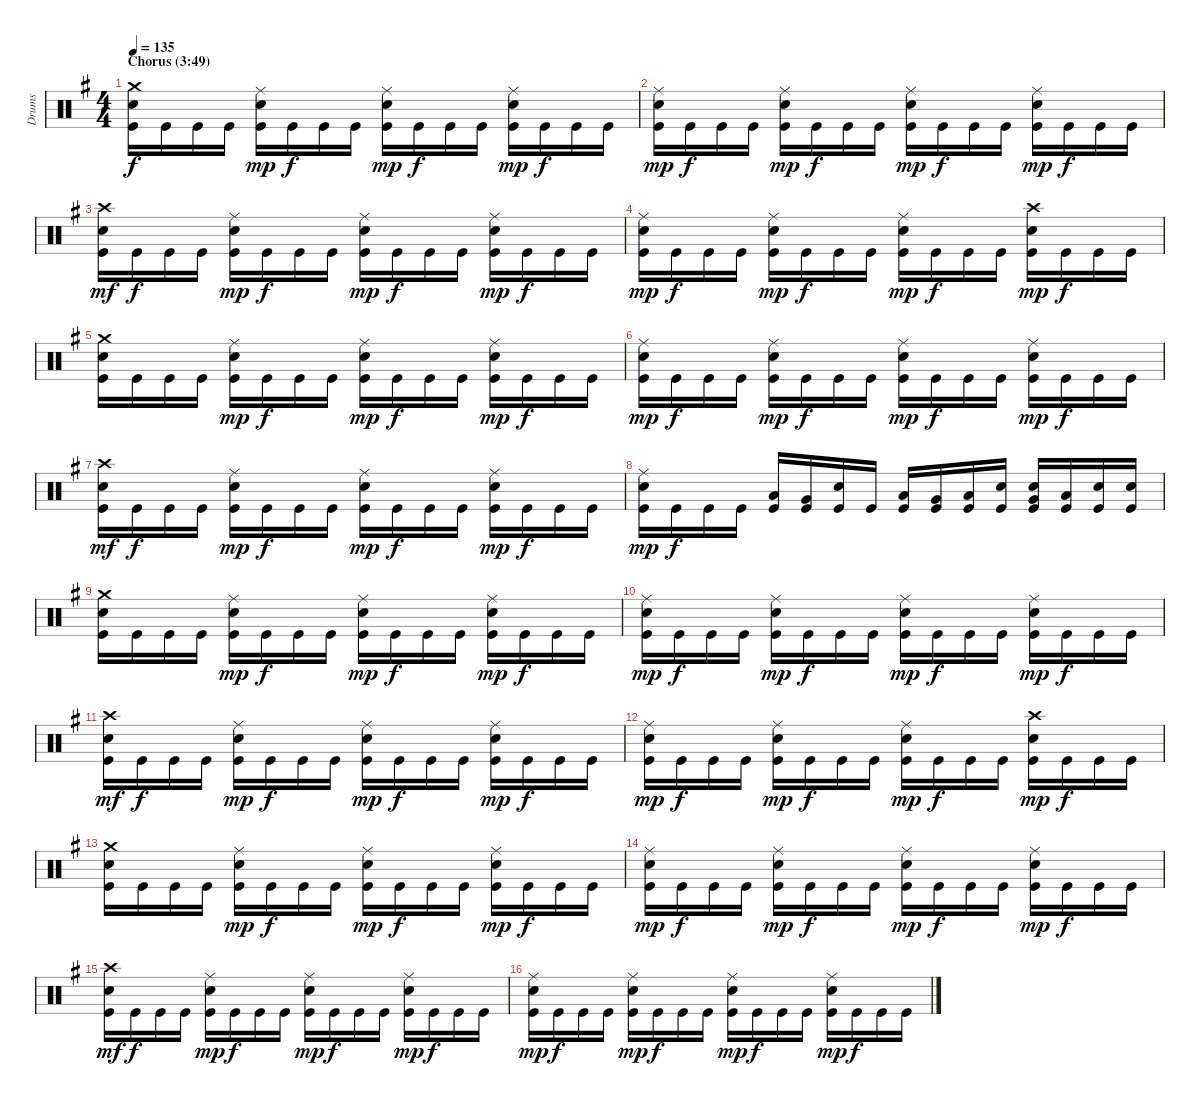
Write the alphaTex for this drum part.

\track ("Drums" "Drums") {instrument percussion}
\staff {score}
\articulation defaults
\ts (4 4)
\section ("" "Chorus (3:49)")
\tempo 135
\clef neutral
\ks eminor
("Crash medium (hit)" "Snare (hit) 2" "Kick (hit)").16{dy f} "Kick (hit)".16 "Kick (hit)".16 "Kick (hit)".16 ("Ride (middle)" "Snare (hit) 2" "Kick (hit)").16{dy mp} "Kick (hit)".16{dy f} "Kick (hit)".16 "Kick (hit)".16 ("Ride (middle)" "Snare (hit) 2" "Kick (hit)").16{dy mp} "Kick (hit)".16{dy f} "Kick (hit)".16 "Kick (hit)".16 ("Ride (middle)" "Snare (hit) 2" "Kick (hit)").16{dy mp} "Kick (hit)".16{dy f} "Kick (hit)".16 "Kick (hit)".16 |
("Ride (middle)" "Snare (hit) 2" "Kick (hit)").16{dy mp} "Kick (hit)".16{dy f} "Kick (hit)".16 "Kick (hit)".16 ("Ride (middle)" "Snare (hit) 2" "Kick (hit)").16{dy mp} "Kick (hit)".16{dy f} "Kick (hit)".16 "Kick (hit)".16 ("Ride (middle)" "Snare (hit) 2" "Kick (hit)").16{dy mp} "Kick (hit)".16{dy f} "Kick (hit)".16 "Kick (hit)".16 ("Ride (middle)" "Snare (hit) 2" "Kick (hit)").16{dy mp} "Kick (hit)".16{dy f} "Kick (hit)".16 "Kick (hit)".16 |
("Crash high (hit)" "Snare (hit) 2" "Kick (hit)").16{dy mf} "Kick (hit)".16{dy f} "Kick (hit)".16 "Kick (hit)".16 ("Ride (middle)" "Snare (hit) 2" "Kick (hit)").16{dy mp} "Kick (hit)".16{dy f} "Kick (hit)".16 "Kick (hit)".16 ("Ride (middle)" "Snare (hit) 2" "Kick (hit)").16{dy mp} "Kick (hit)".16{dy f} "Kick (hit)".16 "Kick (hit)".16 ("Ride (middle)" "Snare (hit) 2" "Kick (hit)").16{dy mp} "Kick (hit)".16{dy f} "Kick (hit)".16 "Kick (hit)".16 |
("Ride (middle)" "Snare (hit) 2" "Kick (hit)").16{dy mp} "Kick (hit)".16{dy f} "Kick (hit)".16 "Kick (hit)".16 ("Ride (middle)" "Snare (hit) 2" "Kick (hit)").16{dy mp} "Kick (hit)".16{dy f} "Kick (hit)".16 "Kick (hit)".16 ("Ride (middle)" "Snare (hit) 2" "Kick (hit)").16{dy mp} "Kick (hit)".16{dy f} "Kick (hit)".16 "Kick (hit)".16 ("Crash high (hit)" "Snare (hit) 2" "Kick (hit)").16{dy mp} "Kick (hit)".16{dy f} "Kick (hit)".16 "Kick (hit)".16 |
("Crash medium (hit)" "Snare (hit) 2" "Kick (hit)").16 "Kick (hit)".16 "Kick (hit)".16 "Kick (hit)".16 ("Ride (middle)" "Snare (hit) 2" "Kick (hit)").16{dy mp} "Kick (hit)".16{dy f} "Kick (hit)".16 "Kick (hit)".16 ("Ride (middle)" "Snare (hit) 2" "Kick (hit)").16{dy mp} "Kick (hit)".16{dy f} "Kick (hit)".16 "Kick (hit)".16 ("Ride (middle)" "Snare (hit) 2" "Kick (hit)").16{dy mp} "Kick (hit)".16{dy f} "Kick (hit)".16 "Kick (hit)".16 |
("Ride (middle)" "Snare (hit) 2" "Kick (hit)").16{dy mp} "Kick (hit)".16{dy f} "Kick (hit)".16 "Kick (hit)".16 ("Ride (middle)" "Snare (hit) 2" "Kick (hit)").16{dy mp} "Kick (hit)".16{dy f} "Kick (hit)".16 "Kick (hit)".16 ("Ride (middle)" "Snare (hit) 2" "Kick (hit)").16{dy mp} "Kick (hit)".16{dy f} "Kick (hit)".16 "Kick (hit)".16 ("Ride (middle)" "Snare (hit) 2" "Kick (hit)").16{dy mp} "Kick (hit)".16{dy f} "Kick (hit)".16 "Kick (hit)".16 |
("Crash high (hit)" "Snare (hit) 2" "Kick (hit)").16{dy mf} "Kick (hit)".16{dy f} "Kick (hit)".16 "Kick (hit)".16 ("Ride (middle)" "Snare (hit) 2" "Kick (hit)").16{dy mp} "Kick (hit)".16{dy f} "Kick (hit)".16 "Kick (hit)".16 ("Ride (middle)" "Snare (hit) 2" "Kick (hit)").16{dy mp} "Kick (hit)".16{dy f} "Kick (hit)".16 "Kick (hit)".16 ("Ride (middle)" "Snare (hit) 2" "Kick (hit)").16{dy mp} "Kick (hit)".16{dy f} "Kick (hit)".16 "Kick (hit)".16 |
("Ride (middle)" "Snare (hit) 2" "Kick (hit)").16{dy mp} "Kick (hit)".16{dy f} "Kick (hit)".16 "Kick (hit)".16 ("Low Tom (hit)" "Kick (hit)").16 ("Very Low Tom (hit)" "Kick (hit)").16 ("Snare (hit) 2" "Kick (hit)").16 "Kick (hit)".16 ("Low Tom (hit)" "Kick (hit)").16 ("Very Low Tom (hit)" "Kick (hit)").16 ("Low Floor Tom (hit)" "Kick (hit)").16 ("Snare (hit) 2" "Kick (hit)").16 ("Very Low Tom (hit)" "Snare (hit) 2" "Kick (hit)").16 ("Low Floor Tom (hit)" "Kick (hit)").16 ("Snare (hit) 2" "Kick (hit)").16 ("Snare (hit) 2" "Kick (hit)").16 |
("Crash medium (hit)" "Snare (hit) 2" "Kick (hit)").16 "Kick (hit)".16 "Kick (hit)".16 "Kick (hit)".16 ("Ride (middle)" "Snare (hit) 2" "Kick (hit)").16{dy mp} "Kick (hit)".16{dy f} "Kick (hit)".16 "Kick (hit)".16 ("Ride (middle)" "Snare (hit) 2" "Kick (hit)").16{dy mp} "Kick (hit)".16{dy f} "Kick (hit)".16 "Kick (hit)".16 ("Ride (middle)" "Snare (hit) 2" "Kick (hit)").16{dy mp} "Kick (hit)".16{dy f} "Kick (hit)".16 "Kick (hit)".16 |
("Ride (middle)" "Snare (hit) 2" "Kick (hit)").16{dy mp} "Kick (hit)".16{dy f} "Kick (hit)".16 "Kick (hit)".16 ("Ride (middle)" "Snare (hit) 2" "Kick (hit)").16{dy mp} "Kick (hit)".16{dy f} "Kick (hit)".16 "Kick (hit)".16 ("Ride (middle)" "Snare (hit) 2" "Kick (hit)").16{dy mp} "Kick (hit)".16{dy f} "Kick (hit)".16 "Kick (hit)".16 ("Ride (middle)" "Snare (hit) 2" "Kick (hit)").16{dy mp} "Kick (hit)".16{dy f} "Kick (hit)".16 "Kick (hit)".16 |
("Crash high (hit)" "Snare (hit) 2" "Kick (hit)").16{dy mf} "Kick (hit)".16{dy f} "Kick (hit)".16 "Kick (hit)".16 ("Ride (middle)" "Snare (hit) 2" "Kick (hit)").16{dy mp} "Kick (hit)".16{dy f} "Kick (hit)".16 "Kick (hit)".16 ("Ride (middle)" "Snare (hit) 2" "Kick (hit)").16{dy mp} "Kick (hit)".16{dy f} "Kick (hit)".16 "Kick (hit)".16 ("Ride (middle)" "Snare (hit) 2" "Kick (hit)").16{dy mp} "Kick (hit)".16{dy f} "Kick (hit)".16 "Kick (hit)".16 |
("Ride (middle)" "Snare (hit) 2" "Kick (hit)").16{dy mp} "Kick (hit)".16{dy f} "Kick (hit)".16 "Kick (hit)".16 ("Ride (middle)" "Snare (hit) 2" "Kick (hit)").16{dy mp} "Kick (hit)".16{dy f} "Kick (hit)".16 "Kick (hit)".16 ("Ride (middle)" "Snare (hit) 2" "Kick (hit)").16{dy mp} "Kick (hit)".16{dy f} "Kick (hit)".16 "Kick (hit)".16 ("Crash high (hit)" "Snare (hit) 2" "Kick (hit)").16{dy mp} "Kick (hit)".16{dy f} "Kick (hit)".16 "Kick (hit)".16 |
("Crash medium (hit)" "Snare (hit) 2" "Kick (hit)").16 "Kick (hit)".16 "Kick (hit)".16 "Kick (hit)".16 ("Ride (middle)" "Snare (hit) 2" "Kick (hit)").16{dy mp} "Kick (hit)".16{dy f} "Kick (hit)".16 "Kick (hit)".16 ("Ride (middle)" "Snare (hit) 2" "Kick (hit)").16{dy mp} "Kick (hit)".16{dy f} "Kick (hit)".16 "Kick (hit)".16 ("Ride (middle)" "Snare (hit) 2" "Kick (hit)").16{dy mp} "Kick (hit)".16{dy f} "Kick (hit)".16 "Kick (hit)".16 |
("Ride (middle)" "Snare (hit) 2" "Kick (hit)").16{dy mp} "Kick (hit)".16{dy f} "Kick (hit)".16 "Kick (hit)".16 ("Ride (middle)" "Snare (hit) 2" "Kick (hit)").16{dy mp} "Kick (hit)".16{dy f} "Kick (hit)".16 "Kick (hit)".16 ("Ride (middle)" "Snare (hit) 2" "Kick (hit)").16{dy mp} "Kick (hit)".16{dy f} "Kick (hit)".16 "Kick (hit)".16 ("Ride (middle)" "Snare (hit) 2" "Kick (hit)").16{dy mp} "Kick (hit)".16{dy f} "Kick (hit)".16 "Kick (hit)".16 |
("Crash high (hit)" "Snare (hit) 2" "Kick (hit)").16{dy mf} "Kick (hit)".16{dy f} "Kick (hit)".16 "Kick (hit)".16 ("Ride (middle)" "Snare (hit) 2" "Kick (hit)").16{dy mp} "Kick (hit)".16{dy f} "Kick (hit)".16 "Kick (hit)".16 ("Ride (middle)" "Snare (hit) 2" "Kick (hit)").16{dy mp} "Kick (hit)".16{dy f} "Kick (hit)".16 "Kick (hit)".16 ("Ride (middle)" "Snare (hit) 2" "Kick (hit)").16{dy mp} "Kick (hit)".16{dy f} "Kick (hit)".16 "Kick (hit)".16 |
("Ride (middle)" "Snare (hit) 2" "Kick (hit)").16{dy mp} "Kick (hit)".16{dy f} "Kick (hit)".16 "Kick (hit)".16 ("Ride (middle)" "Snare (hit) 2" "Kick (hit)").16{dy mp} "Kick (hit)".16{dy f} "Kick (hit)".16 "Kick (hit)".16 ("Ride (middle)" "Snare (hit) 2" "Kick (hit)").16{dy mp} "Kick (hit)".16{dy f} "Kick (hit)".16 "Kick (hit)".16 ("Ride (middle)" "Snare (hit) 2" "Kick (hit)").16{dy mp} "Kick (hit)".16{dy f} "Kick (hit)".16 "Kick (hit)".16
